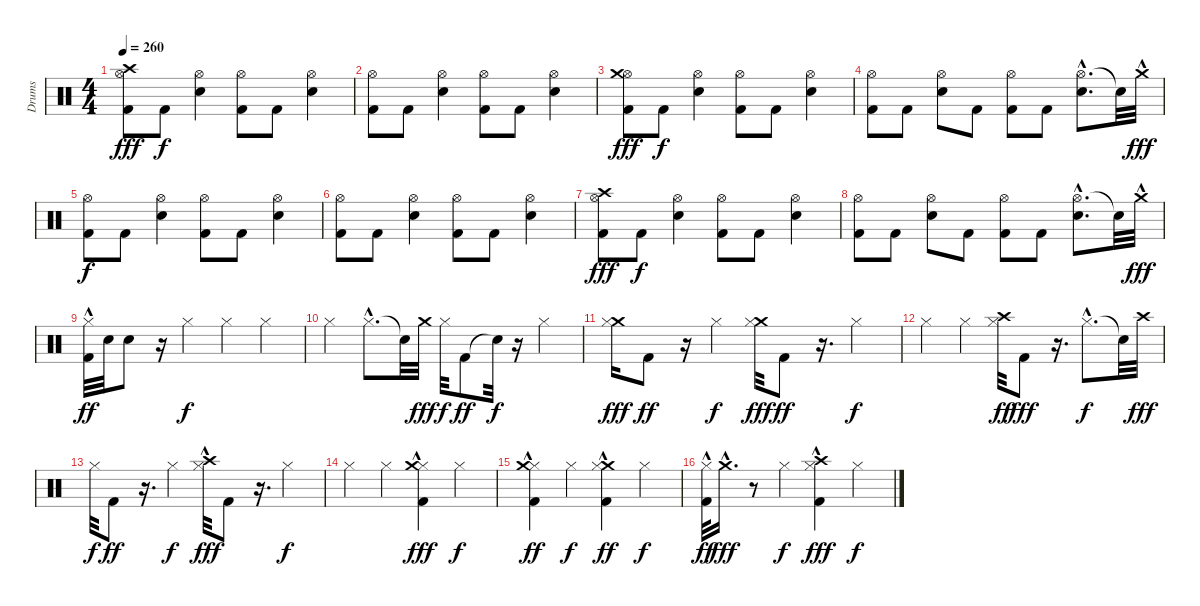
\track ("Drums" "Drums") {instrument percussion}
\staff {score}
\articulation defaults
\ts (4 4)
\tempo 260
\clef neutral
\ks c
("Crash high (hit)" "Hi-Hat (open)" "Kick (hit) 2").8{dy fff} "Kick (hit) 2".8{dy f} ("Hi-Hat (open)" "Snare (hit) 2").4 ("Hi-Hat (open)" "Kick (hit) 2").8 "Kick (hit) 2".8 ("Hi-Hat (open)" "Snare (hit) 2").4 |
("Hi-Hat (open)" "Kick (hit) 2").8 "Kick (hit) 2".8 ("Hi-Hat (open)" "Snare (hit) 2").4 ("Hi-Hat (open)" "Kick (hit) 2").8 "Kick (hit) 2".8 ("Hi-Hat (open)" "Snare (hit) 2").4 |
("Hi-Hat (open)" "Kick (hit) 2" "Crash medium (hit)").8{dy fff} "Kick (hit) 2".8{dy f} ("Hi-Hat (open)" "Snare (hit) 2").4 ("Hi-Hat (open)" "Kick (hit) 2").8 "Kick (hit) 2".8 ("Hi-Hat (open)" "Snare (hit) 2").4 |
("Hi-Hat (open)" "Kick (hit) 2").8 "Kick (hit) 2".8 ("Hi-Hat (open)" "Snare (hit) 2").8 "Kick (hit) 2".8 ("Hi-Hat (open)" "Kick (hit) 2").8 "Kick (hit) 2".8 ("Hi-Hat (open)"{hac} "Snare (hit) 2").8{d} "Snare (hit)"{t}.32 "Crash medium (hit)"{hac}.32{dy fff} |
("Hi-Hat (open)" "Kick (hit) 2").8{dy f} "Kick (hit) 2".8 ("Hi-Hat (open)" "Snare (hit) 2").4 ("Hi-Hat (open)" "Kick (hit) 2").8 "Kick (hit) 2".8 ("Hi-Hat (open)" "Snare (hit) 2").4 |
("Hi-Hat (open)" "Kick (hit) 2").8 "Kick (hit) 2".8 ("Hi-Hat (open)" "Snare (hit) 2").4 ("Hi-Hat (open)" "Kick (hit) 2").8 "Kick (hit) 2".8 ("Hi-Hat (open)" "Snare (hit) 2").4 |
("Hi-Hat (open)" "Kick (hit) 2" "Crash high (hit)").8{dy fff} "Kick (hit) 2".8{dy f} ("Hi-Hat (open)" "Snare (hit) 2").4 ("Hi-Hat (open)" "Kick (hit) 2").8 "Kick (hit) 2".8 ("Hi-Hat (open)" "Snare (hit) 2").4 |
("Hi-Hat (open)" "Kick (hit) 2").8 "Kick (hit) 2".8 ("Hi-Hat (open)" "Snare (hit) 2").8 "Kick (hit) 2".8 ("Hi-Hat (open)" "Kick (hit) 2").8 "Kick (hit) 2".8 ("Hi-Hat (open)"{hac} "Snare (hit) 2").8{d} "Snare (hit)"{t}.32 "Crash medium (hit)"{hac}.32{dy fff} |
("Hi-Hat (closed)" "Kick (hit) 2"{hac}).32{dy ff} "Electric Snare (hit)".32 "Snare (hit) 2".8 r.16 "Hi-Hat (closed)".4{dy f} "Hi-Hat (closed)".4 "Hi-Hat (closed)".4 |
"Hi-Hat (closed)".4 "Hi-Hat (closed)"{hac}.8{d} "Snare (hit)"{t}.32 "Crash medium (hit)".32{dy fff} "Hi-Hat (closed)".32{dy f} "Kick (hit) 2".8{dy ff} "Snare (hit)"{t}.32{dy f} r.16 "Hi-Hat (closed)".4 |
("Crash medium (hit)" "Hi-Hat (closed)").16{dy fff} "Kick (hit) 2".8{dy ff} r.16 "Hi-Hat (closed)".4{dy f} ("Crash medium (hit)" "Hi-Hat (closed)").32{dy fff} "Kick (hit) 2".8{dy ff} r.16{d} "Hi-Hat (closed)".4{dy f} |
"Hi-Hat (closed)".4 "Hi-Hat (closed)".4 ("Crash high (hit)" "Hi-Hat (closed)").32{dy ff} "Kick (hit) 2".8{dy fff} r.16{d} "Hi-Hat (closed)"{hac}.8{d dy f} "Snare (hit)"{t}.32 "Crash high (hit)".32{dy fff} |
"Hi-Hat (closed)".32{dy f} "Kick (hit) 2".8{dy ff} r.16{d} "Hi-Hat (closed)".4{dy f} ("Crash high (hit)"{hac} "Hi-Hat (closed)").32{dy fff} "Kick (hit) 2".8 r.16{d} "Hi-Hat (closed)".4{dy f} |
"Hi-Hat (closed)".4 "Hi-Hat (closed)".4 ("Hi-Hat (closed)" "Kick (hit) 2"{hac} "Crash medium (hit)"{hac}).4{dy fff} "Hi-Hat (closed)".4{dy f} |
("Hi-Hat (closed)" "Crash medium (hit)" "Kick (hit) 2"{hac}).4{dy ff} "Hi-Hat (closed)".4{dy f} ("Crash medium (hit)" "Hi-Hat (closed)" "Kick (hit) 2"{hac}).4{dy ff} "Hi-Hat (closed)".4{dy f} |
("Hi-Hat (closed)" "Kick (hit) 2"{hac}).32{dy ff} "Crash medium (hit)"{hac}.16{d dy fff} r.8 "Hi-Hat (closed)".4{dy f} ("Hi-Hat (closed)" "Kick (hit) 2"{hac} "Crash high (hit)"{hac}).4{dy fff} "Hi-Hat (closed)".4{dy f}
